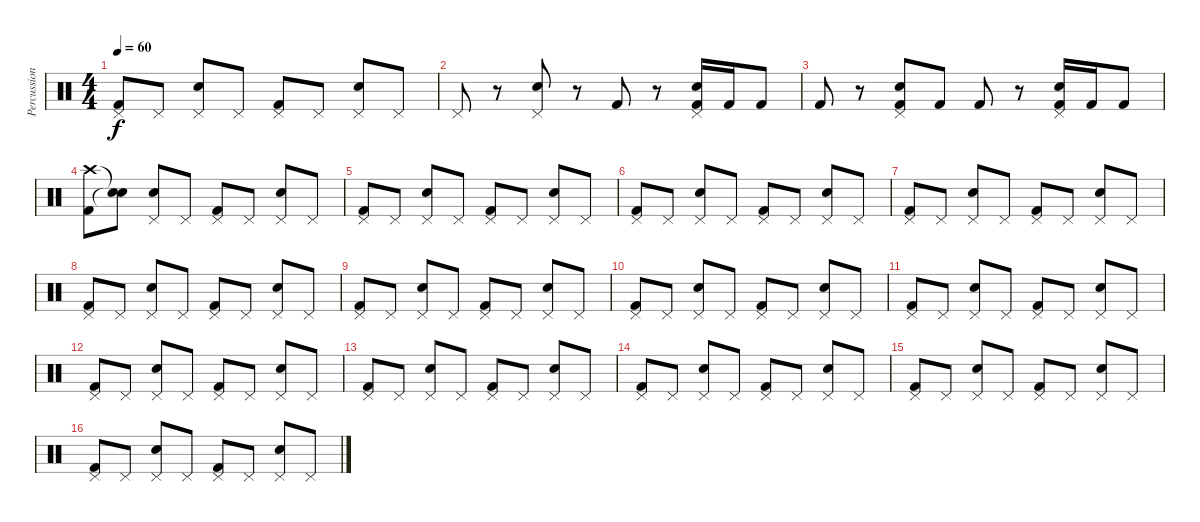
\track ("Percussion" "Percussion") {instrument percussion}
\staff {score}
\articulation defaults
\ts (4 4)
\tempo 60
\clef neutral
\ks c
("Pedal Hi-Hat (hit)" "Kick (hit) 2").8{dy f} "Pedal Hi-Hat (hit)".8 ("Pedal Hi-Hat (hit)" "Snare (hit) 2").8 "Pedal Hi-Hat (hit)".8 ("Pedal Hi-Hat (hit)" "Kick (hit) 2").8 "Pedal Hi-Hat (hit)".8 ("Pedal Hi-Hat (hit)" "Snare (hit) 2").8 "Pedal Hi-Hat (hit)".8 |
"Pedal Hi-Hat (hit)".8 r.8 ("Pedal Hi-Hat (hit)" "Snare (hit) 2").8 r.8 "Kick (hit) 2".8 r.8 ("Pedal Hi-Hat (hit)" "Snare (hit) 2" "Kick (hit) 2").16 "Kick (hit) 2".16 "Kick (hit) 2".8 |
"Kick (hit) 2".8 r.8 ("Pedal Hi-Hat (hit)" "Snare (hit) 2" "Kick (hit) 2").8 "Kick (hit) 2".8 "Kick (hit) 2".8 r.8 ("Pedal Hi-Hat (hit)" "Snare (hit) 2" "Kick (hit) 2").16 "Kick (hit) 2".16 "Kick (hit) 2".8 |
("Crash high (hit)" "Kick (hit) 2").8 ("Snare (hit)"{t} "Snare (hit)"{t}).8 ("Pedal Hi-Hat (hit)" "Snare (hit) 2").8 "Pedal Hi-Hat (hit)".8 ("Pedal Hi-Hat (hit)" "Kick (hit) 2").8 "Pedal Hi-Hat (hit)".8 ("Pedal Hi-Hat (hit)" "Snare (hit) 2").8 "Pedal Hi-Hat (hit)".8 |
("Pedal Hi-Hat (hit)" "Kick (hit) 2").8 "Pedal Hi-Hat (hit)".8 ("Pedal Hi-Hat (hit)" "Snare (hit) 2").8 "Pedal Hi-Hat (hit)".8 ("Pedal Hi-Hat (hit)" "Kick (hit) 2").8 "Pedal Hi-Hat (hit)".8 ("Pedal Hi-Hat (hit)" "Snare (hit) 2").8 "Pedal Hi-Hat (hit)".8 |
("Pedal Hi-Hat (hit)" "Kick (hit) 2").8 "Pedal Hi-Hat (hit)".8 ("Pedal Hi-Hat (hit)" "Snare (hit) 2").8 "Pedal Hi-Hat (hit)".8 ("Pedal Hi-Hat (hit)" "Kick (hit) 2").8 "Pedal Hi-Hat (hit)".8 ("Pedal Hi-Hat (hit)" "Snare (hit) 2").8 "Pedal Hi-Hat (hit)".8 |
("Pedal Hi-Hat (hit)" "Kick (hit) 2").8 "Pedal Hi-Hat (hit)".8 ("Pedal Hi-Hat (hit)" "Snare (hit) 2").8 "Pedal Hi-Hat (hit)".8 ("Pedal Hi-Hat (hit)" "Kick (hit) 2").8 "Pedal Hi-Hat (hit)".8 ("Pedal Hi-Hat (hit)" "Snare (hit) 2").8 "Pedal Hi-Hat (hit)".8 |
("Pedal Hi-Hat (hit)" "Kick (hit) 2").8 "Pedal Hi-Hat (hit)".8 ("Pedal Hi-Hat (hit)" "Snare (hit) 2").8 "Pedal Hi-Hat (hit)".8 ("Pedal Hi-Hat (hit)" "Kick (hit) 2").8 "Pedal Hi-Hat (hit)".8 ("Pedal Hi-Hat (hit)" "Snare (hit) 2").8 "Pedal Hi-Hat (hit)".8 |
("Pedal Hi-Hat (hit)" "Kick (hit) 2").8 "Pedal Hi-Hat (hit)".8 ("Pedal Hi-Hat (hit)" "Snare (hit) 2").8 "Pedal Hi-Hat (hit)".8 ("Pedal Hi-Hat (hit)" "Kick (hit) 2").8 "Pedal Hi-Hat (hit)".8 ("Pedal Hi-Hat (hit)" "Snare (hit) 2").8 "Pedal Hi-Hat (hit)".8 |
("Pedal Hi-Hat (hit)" "Kick (hit) 2").8 "Pedal Hi-Hat (hit)".8 ("Pedal Hi-Hat (hit)" "Snare (hit) 2").8 "Pedal Hi-Hat (hit)".8 ("Pedal Hi-Hat (hit)" "Kick (hit) 2").8 "Pedal Hi-Hat (hit)".8 ("Pedal Hi-Hat (hit)" "Snare (hit) 2").8 "Pedal Hi-Hat (hit)".8 |
("Pedal Hi-Hat (hit)" "Kick (hit) 2").8 "Pedal Hi-Hat (hit)".8 ("Pedal Hi-Hat (hit)" "Snare (hit) 2").8 "Pedal Hi-Hat (hit)".8 ("Pedal Hi-Hat (hit)" "Kick (hit) 2").8 "Pedal Hi-Hat (hit)".8 ("Pedal Hi-Hat (hit)" "Snare (hit) 2").8 "Pedal Hi-Hat (hit)".8 |
("Pedal Hi-Hat (hit)" "Kick (hit) 2").8 "Pedal Hi-Hat (hit)".8 ("Pedal Hi-Hat (hit)" "Snare (hit) 2").8 "Pedal Hi-Hat (hit)".8 ("Pedal Hi-Hat (hit)" "Kick (hit) 2").8 "Pedal Hi-Hat (hit)".8 ("Pedal Hi-Hat (hit)" "Snare (hit) 2").8 "Pedal Hi-Hat (hit)".8 |
("Pedal Hi-Hat (hit)" "Kick (hit) 2").8 "Pedal Hi-Hat (hit)".8 ("Pedal Hi-Hat (hit)" "Snare (hit) 2").8 "Pedal Hi-Hat (hit)".8 ("Pedal Hi-Hat (hit)" "Kick (hit) 2").8 "Pedal Hi-Hat (hit)".8 ("Pedal Hi-Hat (hit)" "Snare (hit) 2").8 "Pedal Hi-Hat (hit)".8 |
("Pedal Hi-Hat (hit)" "Kick (hit) 2").8 "Pedal Hi-Hat (hit)".8 ("Pedal Hi-Hat (hit)" "Snare (hit) 2").8 "Pedal Hi-Hat (hit)".8 ("Pedal Hi-Hat (hit)" "Kick (hit) 2").8 "Pedal Hi-Hat (hit)".8 ("Pedal Hi-Hat (hit)" "Snare (hit) 2").8 "Pedal Hi-Hat (hit)".8 |
("Pedal Hi-Hat (hit)" "Kick (hit) 2").8 "Pedal Hi-Hat (hit)".8 ("Pedal Hi-Hat (hit)" "Snare (hit) 2").8 "Pedal Hi-Hat (hit)".8 ("Pedal Hi-Hat (hit)" "Kick (hit) 2").8 "Pedal Hi-Hat (hit)".8 ("Pedal Hi-Hat (hit)" "Snare (hit) 2").8 "Pedal Hi-Hat (hit)".8 |
("Pedal Hi-Hat (hit)" "Kick (hit) 2").8 "Pedal Hi-Hat (hit)".8 ("Pedal Hi-Hat (hit)" "Snare (hit) 2").8 "Pedal Hi-Hat (hit)".8 ("Pedal Hi-Hat (hit)" "Kick (hit) 2").8 "Pedal Hi-Hat (hit)".8 ("Pedal Hi-Hat (hit)" "Snare (hit) 2").8 "Pedal Hi-Hat (hit)".8
